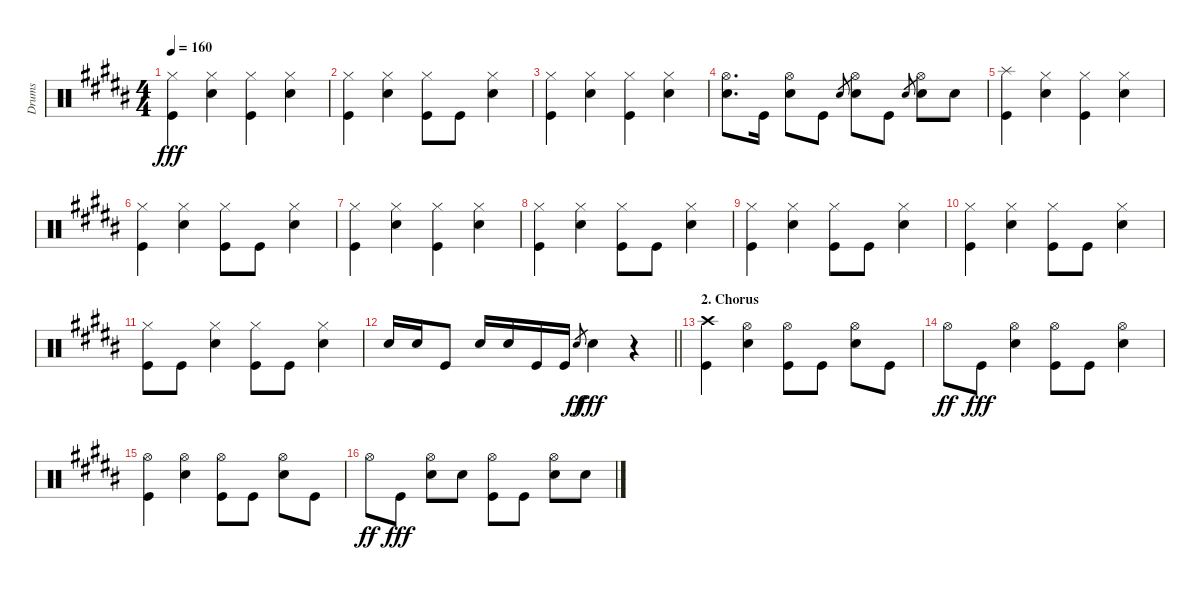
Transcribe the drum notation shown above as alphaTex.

\track ("Drums" "Drums") {instrument percussion}
\staff {score}
\articulation defaults
\ts (4 4)
\tempo 160
\clef neutral
\ks b
("Hi-Hat (closed)" "Kick (hit)").4{dy fff} ("Hi-Hat (closed)" "Snare (hit) 2").4 ("Hi-Hat (closed)" "Kick (hit)").4 ("Hi-Hat (closed)" "Snare (hit) 2").4 |
("Hi-Hat (closed)" "Kick (hit)").4 ("Hi-Hat (closed)" "Snare (hit) 2").4 ("Hi-Hat (closed)" "Kick (hit)").8 "Kick (hit)".8 ("Hi-Hat (closed)" "Snare (hit) 2").4 |
("Hi-Hat (closed)" "Kick (hit)").4 ("Hi-Hat (closed)" "Snare (hit) 2").4 ("Hi-Hat (closed)" "Kick (hit)").4 ("Hi-Hat (closed)" "Snare (hit) 2").4 |
("Hi-Hat (open)" "Snare (hit) 2").8{d} "Kick (hit)".16 ("Hi-Hat (open)" "Snare (hit) 2").8 "Kick (hit)".8 "Snare (hit) 2".8{gr} ("Hi-Hat (open)" "Snare (hit) 2").8 "Kick (hit)".8 "Snare (hit) 2".8{gr} ("Hi-Hat (open)" "Snare (hit) 2").8 "Snare (hit) 2".8 |
("Splash (hit)" "Kick (hit)").4 ("Hi-Hat (closed)" "Snare (hit) 2").4 ("Hi-Hat (closed)" "Kick (hit)").4 ("Hi-Hat (closed)" "Snare (hit) 2").4 |
("Hi-Hat (closed)" "Kick (hit)").4 ("Hi-Hat (closed)" "Snare (hit) 2").4 ("Hi-Hat (closed)" "Kick (hit)").8 "Kick (hit)".8 ("Hi-Hat (closed)" "Snare (hit) 2").4 |
("Hi-Hat (closed)" "Kick (hit)").4 ("Hi-Hat (closed)" "Snare (hit) 2").4 ("Hi-Hat (closed)" "Kick (hit)").4 ("Hi-Hat (closed)" "Snare (hit) 2").4 |
("Hi-Hat (closed)" "Kick (hit)").4 ("Hi-Hat (closed)" "Snare (hit) 2").4 ("Hi-Hat (closed)" "Kick (hit)").8 "Kick (hit)".8 ("Hi-Hat (closed)" "Snare (hit) 2").4 |
("Hi-Hat (closed)" "Kick (hit)").4 ("Hi-Hat (closed)" "Snare (hit) 2").4 ("Hi-Hat (closed)" "Kick (hit)").8 "Kick (hit)".8 ("Hi-Hat (closed)" "Snare (hit) 2").4 |
("Hi-Hat (closed)" "Kick (hit)").4 ("Hi-Hat (closed)" "Snare (hit) 2").4 ("Hi-Hat (closed)" "Kick (hit)").8 "Kick (hit)".8 ("Hi-Hat (closed)" "Snare (hit) 2").4 |
("Hi-Hat (closed)" "Kick (hit)").8 "Kick (hit)".8 ("Hi-Hat (closed)" "Snare (hit) 2").4 ("Hi-Hat (closed)" "Kick (hit)").8 "Kick (hit)".8 ("Hi-Hat (closed)" "Snare (hit) 2").4 |
\barLineRight lightlight "Snare (hit) 2".16 "Snare (hit) 2".16 "Kick (hit)".8 "Snare (hit) 2".16 "Snare (hit) 2".16 "Kick (hit)".16 "Kick (hit)".16 "Snare (hit) 2".8{gr dy ff} "Snare (hit) 2".4{dy fff}
r.4 |
\section ("" "2. Chorus")
("Crash high (hit)" "Kick (hit)").4 ("Hi-Hat (open)" "Snare (hit) 2").4 ("Hi-Hat (open)" "Kick (hit)").8 "Kick (hit)".8 ("Hi-Hat (open)" "Snare (hit) 2").8 "Kick (hit)".8 |
"Hi-Hat (open)".8{dy ff} "Kick (hit)".8{dy fff} ("Hi-Hat (open)" "Snare (hit) 2").4 ("Hi-Hat (open)" "Kick (hit)").8 "Kick (hit)".8 ("Hi-Hat (open)" "Snare (hit) 2").4 |
("Hi-Hat (open)" "Kick (hit)").4 ("Hi-Hat (open)" "Snare (hit) 2").4 ("Hi-Hat (open)" "Kick (hit)").8 "Kick (hit)".8 ("Hi-Hat (open)" "Snare (hit) 2").8 "Kick (hit)".8 |
"Hi-Hat (open)".8{dy ff} "Kick (hit)".8{dy fff} ("Hi-Hat (open)" "Snare (hit) 2").8 "Snare (hit) 2".8 ("Hi-Hat (open)" "Kick (hit)").8 "Kick (hit)".8 ("Hi-Hat (open)" "Snare (hit) 2").8 "Snare (hit) 2".8
